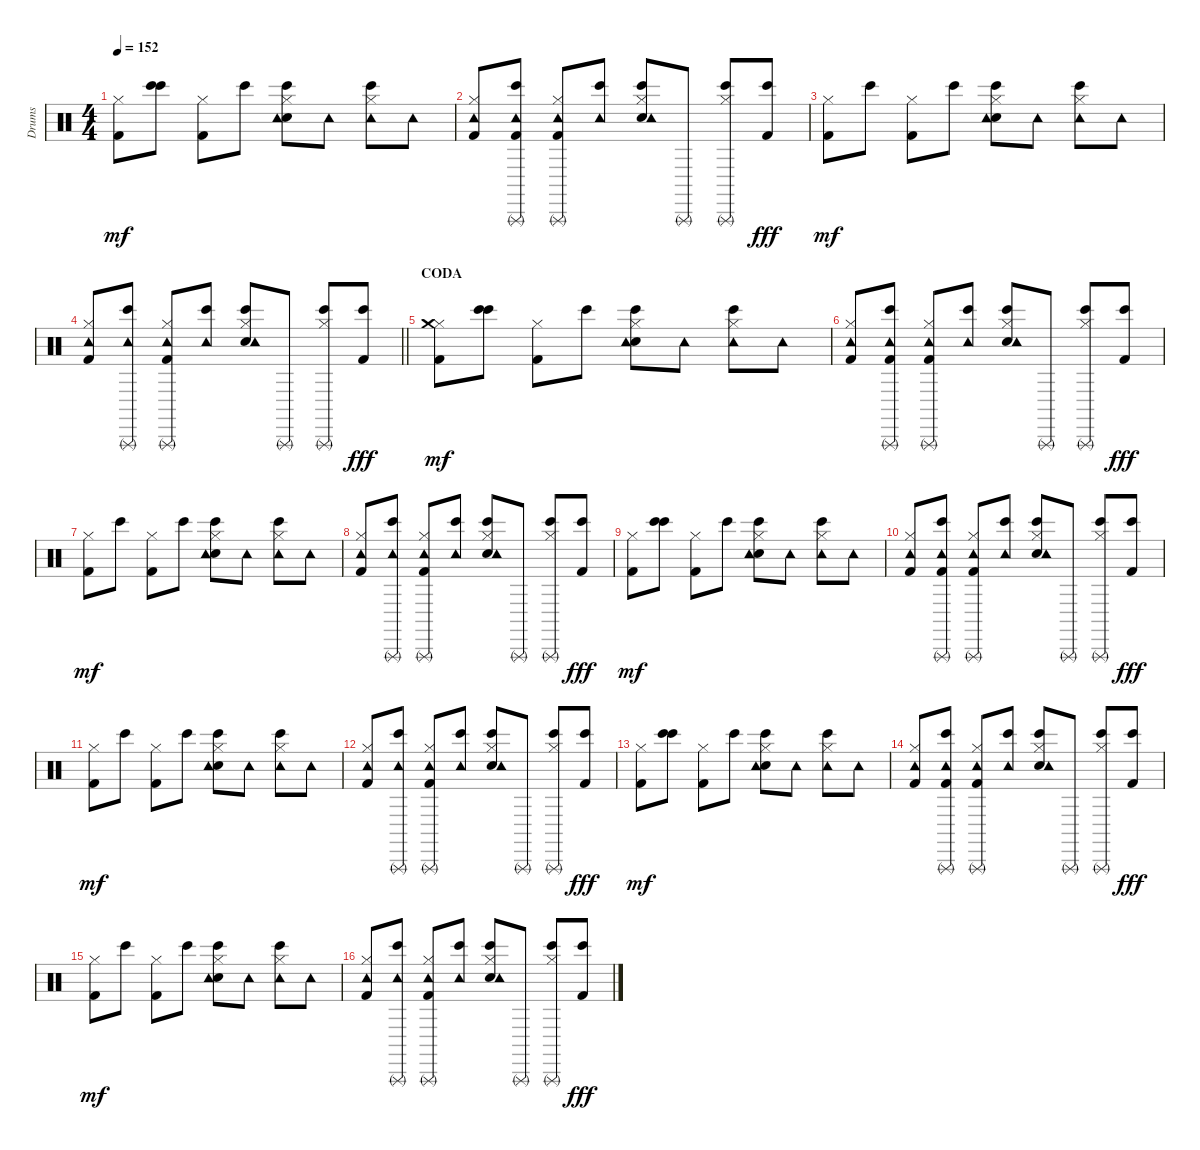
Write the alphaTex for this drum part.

\track ("Drums" "Drums") {instrument percussion}
\staff {score}
\articulation defaults
\ts (4 4)
\tempo 152
\clef neutral
\ks c
("Kick (hit) 2" "Hi-Hat (closed)").8{dy mf} ("Bongo High (hit)" "Bongo High (hit)").8 ("Kick (hit) 2" "Hi-Hat (closed)").8 "Bongo High (hit)".8 ("Bongo High (hit)" "Electric Snare (hit)" "Hi-Hat (closed)" "Tambourine (hit)").8 "Tambourine (hit)".8 ("Tambourine (hit)" "Bongo High (hit)" "Hi-Hat (closed)").8 "Tambourine (hit)".8 |
("Tambourine (hit)" "Kick (hit) 2" "Hi-Hat (closed)").8 ("Tambourine (hit)" "Bongo High (hit)" "Kick (hit) 2" "Triangle (rnute)").8 ("Kick (hit) 2" "Hi-Hat (closed)" "Triangle (rnute)" "Tambourine (hit)").8 ("Tambourine (hit)" "Bongo High (hit)").8 ("Bongo High (hit)" "Electric Snare (hit)" "Hi-Hat (closed)" "Tambourine (hit)").8 "Triangle (rnute)".8 ("Bongo High (hit)" "Hi-Hat (closed)" "Triangle (rnute)").8 ("Bongo High (hit)" "Kick (hit) 2").8{dy fff} |
("Kick (hit) 2" "Hi-Hat (closed)").8{dy mf} "Bongo High (hit)".8 ("Kick (hit) 2" "Hi-Hat (closed)").8 "Bongo High (hit)".8 ("Bongo High (hit)" "Electric Snare (hit)" "Hi-Hat (closed)" "Tambourine (hit)").8 "Tambourine (hit)".8 ("Tambourine (hit)" "Bongo High (hit)" "Hi-Hat (closed)").8 "Tambourine (hit)".8 |
\barLineRight lightlight
("Tambourine (hit)" "Kick (hit) 2" "Hi-Hat (closed)").8 ("Tambourine (hit)" "Bongo High (hit)" "Triangle (rnute)").8 ("Kick (hit) 2" "Hi-Hat (closed)" "Triangle (rnute)" "Tambourine (hit)").8 ("Tambourine (hit)" "Bongo High (hit)").8 ("Bongo High (hit)" "Electric Snare (hit)" "Hi-Hat (closed)" "Tambourine (hit)").8 "Triangle (rnute)".8 ("Bongo High (hit)" "Hi-Hat (closed)" "Triangle (rnute)").8 ("Bongo High (hit)" "Kick (hit) 2").8{dy fff} |
\section ("" "CODA")
("Kick (hit) 2" "Hi-Hat (closed)" "Crash medium (hit)").8{dy mf} ("Bongo High (hit)" "Bongo High (hit)").8 ("Kick (hit) 2" "Hi-Hat (closed)").8 "Bongo High (hit)".8 ("Bongo High (hit)" "Electric Snare (hit)" "Hi-Hat (closed)" "Tambourine (hit)").8 "Tambourine (hit)".8 ("Tambourine (hit)" "Bongo High (hit)" "Hi-Hat (closed)").8 "Tambourine (hit)".8 |
("Tambourine (hit)" "Kick (hit) 2" "Hi-Hat (closed)").8 ("Tambourine (hit)" "Bongo High (hit)" "Kick (hit) 2" "Triangle (rnute)").8 ("Kick (hit) 2" "Hi-Hat (closed)" "Triangle (rnute)" "Tambourine (hit)").8 ("Tambourine (hit)" "Bongo High (hit)").8 ("Bongo High (hit)" "Electric Snare (hit)" "Hi-Hat (closed)" "Tambourine (hit)").8 "Triangle (rnute)".8 ("Bongo High (hit)" "Hi-Hat (closed)" "Triangle (rnute)").8 ("Bongo High (hit)" "Kick (hit) 2").8{dy fff} |
("Kick (hit) 2" "Hi-Hat (closed)").8{dy mf} "Bongo High (hit)".8 ("Kick (hit) 2" "Hi-Hat (closed)").8 "Bongo High (hit)".8 ("Bongo High (hit)" "Electric Snare (hit)" "Hi-Hat (closed)" "Tambourine (hit)").8 "Tambourine (hit)".8 ("Tambourine (hit)" "Bongo High (hit)" "Hi-Hat (closed)").8 "Tambourine (hit)".8 |
("Tambourine (hit)" "Kick (hit) 2" "Hi-Hat (closed)").8 ("Tambourine (hit)" "Bongo High (hit)" "Triangle (rnute)").8 ("Kick (hit) 2" "Hi-Hat (closed)" "Triangle (rnute)" "Tambourine (hit)").8 ("Tambourine (hit)" "Bongo High (hit)").8 ("Bongo High (hit)" "Electric Snare (hit)" "Hi-Hat (closed)" "Tambourine (hit)").8 "Triangle (rnute)".8 ("Bongo High (hit)" "Hi-Hat (closed)" "Triangle (rnute)").8 ("Bongo High (hit)" "Kick (hit) 2").8{dy fff} |
("Kick (hit) 2" "Hi-Hat (closed)").8{dy mf} ("Bongo High (hit)" "Bongo High (hit)").8 ("Kick (hit) 2" "Hi-Hat (closed)").8 "Bongo High (hit)".8 ("Bongo High (hit)" "Electric Snare (hit)" "Hi-Hat (closed)" "Tambourine (hit)").8 "Tambourine (hit)".8 ("Tambourine (hit)" "Bongo High (hit)" "Hi-Hat (closed)").8 "Tambourine (hit)".8 |
("Tambourine (hit)" "Kick (hit) 2" "Hi-Hat (closed)").8 ("Tambourine (hit)" "Bongo High (hit)" "Kick (hit) 2" "Triangle (rnute)").8 ("Kick (hit) 2" "Hi-Hat (closed)" "Triangle (rnute)" "Tambourine (hit)").8 ("Tambourine (hit)" "Bongo High (hit)").8 ("Bongo High (hit)" "Electric Snare (hit)" "Hi-Hat (closed)" "Tambourine (hit)").8 "Triangle (rnute)".8 ("Bongo High (hit)" "Hi-Hat (closed)" "Triangle (rnute)").8 ("Bongo High (hit)" "Kick (hit) 2").8{dy fff} |
("Kick (hit) 2" "Hi-Hat (closed)").8{dy mf} "Bongo High (hit)".8 ("Kick (hit) 2" "Hi-Hat (closed)").8 "Bongo High (hit)".8 ("Bongo High (hit)" "Electric Snare (hit)" "Hi-Hat (closed)" "Tambourine (hit)").8 "Tambourine (hit)".8 ("Tambourine (hit)" "Bongo High (hit)" "Hi-Hat (closed)").8 "Tambourine (hit)".8 |
("Tambourine (hit)" "Kick (hit) 2" "Hi-Hat (closed)").8 ("Tambourine (hit)" "Bongo High (hit)" "Triangle (rnute)").8 ("Kick (hit) 2" "Hi-Hat (closed)" "Triangle (rnute)" "Tambourine (hit)").8 ("Tambourine (hit)" "Bongo High (hit)").8 ("Bongo High (hit)" "Electric Snare (hit)" "Hi-Hat (closed)" "Tambourine (hit)").8 "Triangle (rnute)".8 ("Bongo High (hit)" "Hi-Hat (closed)" "Triangle (rnute)").8 ("Bongo High (hit)" "Kick (hit) 2").8{dy fff} |
("Kick (hit) 2" "Hi-Hat (closed)").8{dy mf} ("Bongo High (hit)" "Bongo High (hit)").8 ("Kick (hit) 2" "Hi-Hat (closed)").8 "Bongo High (hit)".8 ("Bongo High (hit)" "Electric Snare (hit)" "Hi-Hat (closed)" "Tambourine (hit)").8 "Tambourine (hit)".8 ("Tambourine (hit)" "Bongo High (hit)" "Hi-Hat (closed)").8 "Tambourine (hit)".8 |
("Tambourine (hit)" "Kick (hit) 2" "Hi-Hat (closed)").8 ("Tambourine (hit)" "Bongo High (hit)" "Kick (hit) 2" "Triangle (rnute)").8 ("Kick (hit) 2" "Hi-Hat (closed)" "Triangle (rnute)" "Tambourine (hit)").8 ("Tambourine (hit)" "Bongo High (hit)").8 ("Bongo High (hit)" "Electric Snare (hit)" "Hi-Hat (closed)" "Tambourine (hit)").8 "Triangle (rnute)".8 ("Bongo High (hit)" "Hi-Hat (closed)" "Triangle (rnute)").8 ("Bongo High (hit)" "Kick (hit) 2").8{dy fff} |
("Kick (hit) 2" "Hi-Hat (closed)").8{dy mf} "Bongo High (hit)".8 ("Kick (hit) 2" "Hi-Hat (closed)").8 "Bongo High (hit)".8 ("Bongo High (hit)" "Electric Snare (hit)" "Hi-Hat (closed)" "Tambourine (hit)").8 "Tambourine (hit)".8 ("Tambourine (hit)" "Bongo High (hit)" "Hi-Hat (closed)").8 "Tambourine (hit)".8 |
("Tambourine (hit)" "Kick (hit) 2" "Hi-Hat (closed)").8 ("Tambourine (hit)" "Bongo High (hit)" "Triangle (rnute)").8 ("Kick (hit) 2" "Hi-Hat (closed)" "Triangle (rnute)" "Tambourine (hit)").8 ("Tambourine (hit)" "Bongo High (hit)").8 ("Bongo High (hit)" "Electric Snare (hit)" "Hi-Hat (closed)" "Tambourine (hit)").8 "Triangle (rnute)".8 ("Bongo High (hit)" "Hi-Hat (closed)" "Triangle (rnute)").8 ("Bongo High (hit)" "Kick (hit) 2").8{dy fff}
